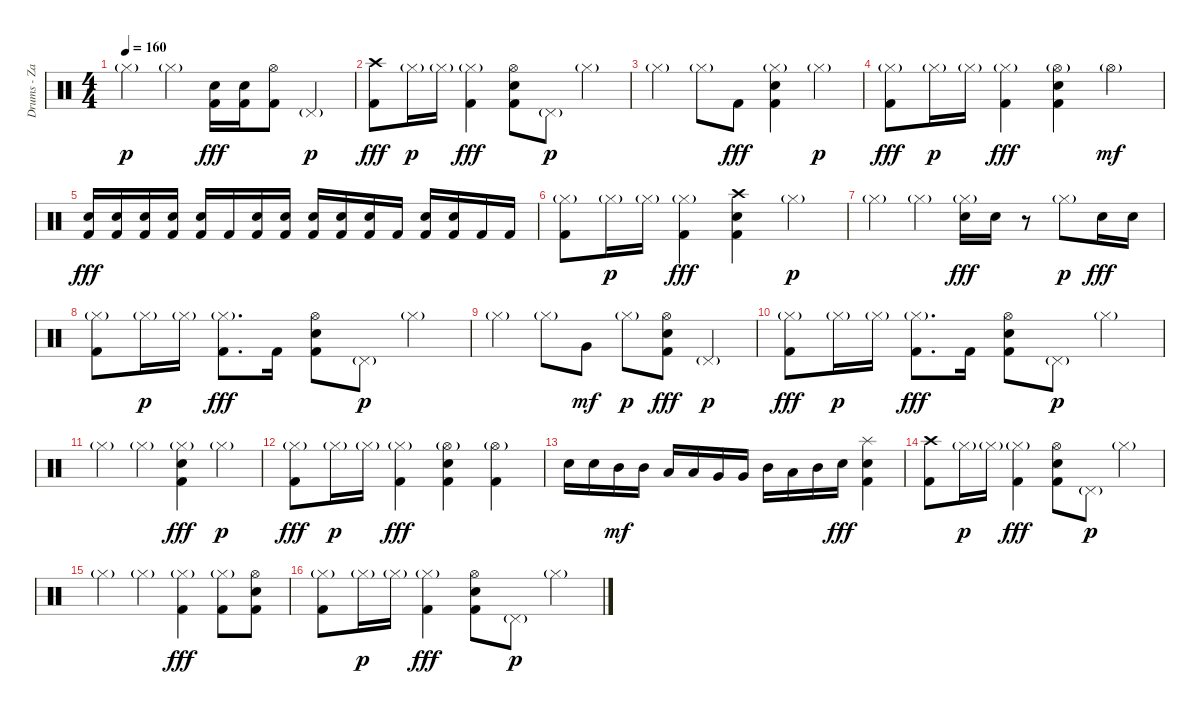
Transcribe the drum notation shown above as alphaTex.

\track ("Drums - Zac Farro" "Drums - Za") {instrument percussion}
\staff {score}
\articulation defaults
\ts (4 4)
\tempo 160
\clef neutral
\ks c "Hi-Hat (closed)"{g}.4{dy p} "Hi-Hat (closed)"{g}.4
("Electric Snare (hit)" "Kick (hit) 2").16{dy fff} ("Electric Snare (hit)" "Kick (hit) 2").16 ("Hi-Hat (open)" "Kick (hit) 2").8 "Pedal Hi-Hat (hit)"{g}.4{dy p} |
("Crash high (hit)" "Kick (hit) 2").8{dy fff} "Hi-Hat (closed)"{g}.16{dy p} "Hi-Hat (closed)"{g}.16 ("Hi-Hat (closed)"{g} "Kick (hit) 2").4{dy fff} ("Hi-Hat (open)" "Electric Snare (hit)" "Kick (hit) 2").8 "Pedal Hi-Hat (hit)"{g}.8{dy p} "Hi-Hat (closed)"{g}.4 |
"Hi-Hat (closed)"{g}.4 "Hi-Hat (closed)"{g}.8 "Kick (hit) 2".8{dy fff} ("Hi-Hat (closed)"{g} "Electric Snare (hit)" "Kick (hit) 2").4 "Hi-Hat (closed)"{g}.4{dy p} |
("Hi-Hat (closed)"{g} "Kick (hit) 2").8{dy fff} "Hi-Hat (closed)"{g}.16{dy p} "Hi-Hat (closed)"{g}.16 ("Hi-Hat (closed)"{g} "Kick (hit) 2").4{dy fff} ("Hi-Hat (open)"{g} "Electric Snare (hit)" "Kick (hit) 2").4 "Hi-Hat (open)"{g}.4{dy mf} |
("Electric Snare (hit)" "Kick (hit) 2").16{dy fff} ("Electric Snare (hit)" "Kick (hit) 2").16 ("Electric Snare (hit)" "Kick (hit) 2").16 ("Electric Snare (hit)" "Kick (hit) 2").16 ("Electric Snare (hit)" "Kick (hit) 2").16 "Kick (hit) 2".16 ("Electric Snare (hit)" "Kick (hit) 2").16 ("Electric Snare (hit)" "Kick (hit) 2").16 ("Electric Snare (hit)" "Kick (hit) 2").16 ("Electric Snare (hit)" "Kick (hit) 2").16 ("Electric Snare (hit)" "Kick (hit) 2").16 "Kick (hit) 2".16 ("Electric Snare (hit)" "Kick (hit) 2").16 ("Electric Snare (hit)" "Kick (hit) 2").16 "Kick (hit) 2".16 "Kick (hit) 2".16 |
("Hi-Hat (closed)"{g} "Kick (hit) 2").8 "Hi-Hat (closed)"{g}.16{dy p} "Hi-Hat (closed)"{g}.16 ("Hi-Hat (closed)"{g} "Kick (hit) 2").4{dy fff} ("Crash high (hit)" "Electric Snare (hit)" "Kick (hit) 2").4 "Hi-Hat (closed)"{g}.4{dy p} |
"Hi-Hat (closed)"{g}.4 "Hi-Hat (closed)"{g}.4 ("Hi-Hat (closed)"{g} "Electric Snare (hit)").16{dy fff} "Electric Snare (hit)".16 r.8 "Hi-Hat (closed)"{g}.8{dy p} "Electric Snare (hit)".16{dy fff} "Electric Snare (hit)".16 |
("Hi-Hat (closed)"{g} "Kick (hit) 2").8 "Hi-Hat (closed)"{g}.16{dy p} "Hi-Hat (closed)"{g}.16 ("Hi-Hat (closed)"{g} "Kick (hit) 2").8{d dy fff} "Kick (hit) 2".16 ("Hi-Hat (open)" "Electric Snare (hit)" "Kick (hit) 2").8 "Pedal Hi-Hat (hit)"{g}.8{dy p} "Hi-Hat (closed)"{g}.4 |
"Hi-Hat (closed)"{g}.4 "Hi-Hat (closed)"{g}.8 "Very Low Tom (hit)".8{dy mf balance 16} "Hi-Hat (closed)"{g}.8{dy p balance 8} ("Hi-Hat (open)" "Electric Snare (hit)" "Kick (hit) 2").8{dy fff} "Pedal Hi-Hat (hit)"{g}.4{dy p} |
("Hi-Hat (closed)"{g} "Kick (hit) 2").8{dy fff} "Hi-Hat (closed)"{g}.16{dy p} "Hi-Hat (closed)"{g}.16 ("Hi-Hat (closed)"{g} "Kick (hit) 2").8{d dy fff} "Kick (hit) 2".16 ("Hi-Hat (open)" "Electric Snare (hit)" "Kick (hit) 2").8 "Pedal Hi-Hat (hit)"{g}.8{dy p} "Hi-Hat (closed)"{g}.4 |
"Hi-Hat (closed)"{g}.4 "Hi-Hat (closed)"{g}.4 ("Hi-Hat (closed)"{g} "Electric Snare (hit)" "Kick (hit) 2").4{dy fff} "Hi-Hat (closed)"{g}.4{dy p} |
("Hi-Hat (closed)"{g} "Kick (hit) 2").8{dy fff} "Hi-Hat (closed)"{g}.16{dy p} "Hi-Hat (closed)"{g}.16 ("Hi-Hat (closed)"{g} "Kick (hit) 2").4{dy fff} ("Hi-Hat (open)"{g} "Electric Snare (hit)" "Kick (hit) 2").4 ("Hi-Hat (open)"{g} "Kick (hit) 2").4 |
"Electric Snare (hit)".16 "Electric Snare (hit)".16 "Mid Tom (hit)".16{dy mf} "Mid Tom (hit)".16 "Low Tom (hit)".16 "Low Tom (hit)".16 "Very Low Tom (hit)".16 "Very Low Tom (hit)".16 "Mid Tom (hit)".16 "Low Tom (hit)".16 "Mid Tom (hit)".16 "Electric Snare (hit)".16{dy fff} ("Splash (hit)" "Electric Snare (hit)" "Kick (hit) 2").4 |
("Crash high (hit)" "Kick (hit) 2").8 "Hi-Hat (closed)"{g}.16{dy p} "Hi-Hat (closed)"{g}.16 ("Hi-Hat (closed)"{g} "Kick (hit) 2").4{dy fff} ("Hi-Hat (open)" "Electric Snare (hit)" "Kick (hit) 2").8 "Pedal Hi-Hat (hit)"{g}.8{dy p} "Hi-Hat (closed)"{g}.4 |
"Hi-Hat (closed)"{g}.4 "Hi-Hat (closed)"{g}.4 ("Hi-Hat (closed)"{g} "Kick (hit) 2").4{dy fff} ("Hi-Hat (closed)"{g} "Kick (hit) 2").8 ("Hi-Hat (open)" "Electric Snare (hit)" "Kick (hit) 2").8 |
("Hi-Hat (closed)"{g} "Kick (hit) 2").8 "Hi-Hat (closed)"{g}.16{dy p} "Hi-Hat (closed)"{g}.16 ("Hi-Hat (closed)"{g} "Kick (hit) 2").4{dy fff} ("Hi-Hat (open)" "Electric Snare (hit)" "Kick (hit) 2").8 "Pedal Hi-Hat (hit)"{g}.8{dy p} "Hi-Hat (closed)"{g}.4
